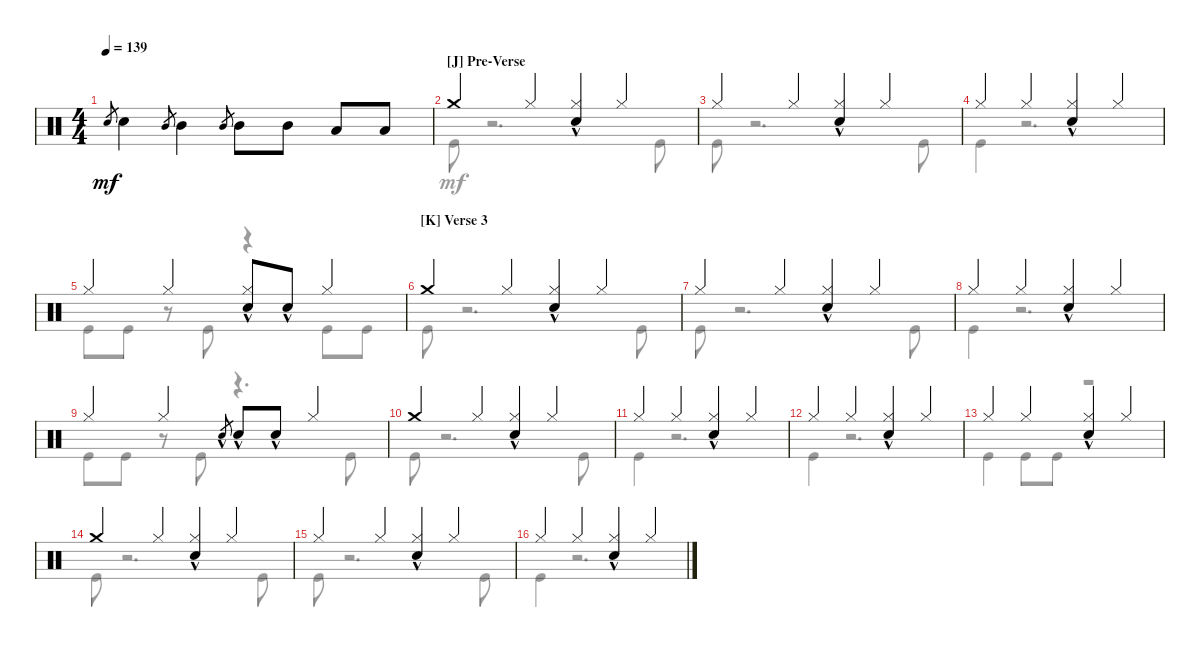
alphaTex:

\defaultSystemsLayout 4
\bracketExtendMode groupsimilarinstruments
\singleTrackTrackNamePolicy hidden
\multiTrackTrackNamePolicy hidden
\firstSystemTrackNameOrientation horizontal
\otherSystemsTrackNameOrientation horizontal
\track ("Nicko McBrain" "Drums") {instrument percussion}
\staff {score}
\articulation defaults
\voice
\ts (4 4)
\tempo 139
\clef neutral
\scale
1.02648
\ks c "Snare (hit) 2".8{gr dy mf} "Snare (hit) 2".4 "Mid Tom (hit)".8{gr} "Mid Tom (hit)".4 "Mid Tom (hit)".8{gr} "Mid Tom (hit)".8 "Mid Tom (hit)".8 "Low Tom (hit)".8 "Low Tom (hit)".8
|
\section ("J" "Pre-Verse")
\scale
0.973518 "Crash medium (hit)".4 "Hi-Hat (closed)".4 ("Hi-Hat (closed)" "Snare (hit) 2"{hac}).4 "Hi-Hat (closed)".4 |
\scale
1.02648 "Hi-Hat (closed)".4 "Hi-Hat (closed)".4 ("Snare (hit) 2"{hac} "Hi-Hat (closed)").4 "Hi-Hat (closed)".4 |
\scale
0.973518 "Hi-Hat (closed)".4 "Hi-Hat (closed)".4 ("Snare (hit) 2"{hac} "Hi-Hat (closed)").4 "Hi-Hat (closed)".4 |
\scale
1.02648 "Hi-Hat (closed)".4 "Hi-Hat (closed)".4 ("Hi-Hat (closed)" "Snare (hit) 2"{hac}).8 "Snare (hit) 2"{hac}.8 "Hi-Hat (closed)".4 |
\section ("K" "Verse 3")
\scale
0.973518 "Crash medium (hit)".4 "Hi-Hat (closed)".4 ("Hi-Hat (closed)" "Snare (hit) 2"{hac}).4 "Hi-Hat (closed)".4 |
\scale
1.02648 "Hi-Hat (closed)".4 "Hi-Hat (closed)".4 ("Snare (hit) 2"{hac} "Hi-Hat (closed)").4 "Hi-Hat (closed)".4 |
\scale
0.973518 "Hi-Hat (closed)".4 "Hi-Hat (closed)".4 ("Snare (hit) 2"{hac} "Hi-Hat (closed)").4 "Hi-Hat (closed)".4 |
\scale
1.02648 "Hi-Hat (closed)".4 "Hi-Hat (closed)".4 "Snare (hit) 2"{hac}.8{gr} "Snare (hit) 2"{hac}.8 "Snare (hit) 2"{hac}.8 "Hi-Hat (closed)".4 |
\scale
0.973518 "Crash medium (hit)".4 "Hi-Hat (closed)".4 ("Hi-Hat (closed)" "Snare (hit) 2"{hac}).4 "Hi-Hat (closed)".4 |
\scale
1.02648 "Hi-Hat (closed)".4 "Hi-Hat (closed)".4 ("Snare (hit) 2"{hac} "Hi-Hat (closed)").4 "Hi-Hat (closed)".4 |
\scale
0.973518 "Hi-Hat (closed)".4 "Hi-Hat (closed)".4 ("Snare (hit) 2"{hac} "Hi-Hat (closed)").4 "Hi-Hat (closed)".4 |
\scale
1.02648 "Hi-Hat (closed)".4 "Hi-Hat (closed)".4 ("Snare (hit) 2"{hac} "Hi-Hat (closed)").4 "Hi-Hat (closed)".4 |
\scale
0.973518 "Crash medium (hit)".4 "Hi-Hat (closed)".4 ("Hi-Hat (closed)" "Snare (hit) 2"{hac}).4 "Hi-Hat (closed)".4 |
\scale
1.02648 "Hi-Hat (closed)".4 "Hi-Hat (closed)".4 ("Snare (hit) 2"{hac} "Hi-Hat (closed)").4 "Hi-Hat (closed)".4 |
\scale
0.973518 "Hi-Hat (closed)".4 "Hi-Hat (closed)".4 ("Snare (hit) 2"{hac} "Hi-Hat (closed)").4 "Hi-Hat (closed)".4
\voice
\clef neutral
\ottava regular
\simile none
\scale
1.02648
\ks c
|
\scale
0.973518 "Kick (hit)".8 r.2{d} "Kick (hit)".8 |
\scale
1.02648 "Kick (hit)".8 r.2{d} "Kick (hit)".8 |
\scale
0.973518 "Kick (hit)".4 r.2{d} |
\scale
1.02648 "Kick (hit)".8 "Kick (hit)".8 r.8 "Kick (hit)".8 r.4 "Kick (hit)".8 "Kick (hit)".8 |
\scale
0.973518 "Kick (hit)".8 r.2{d} "Kick (hit)".8 |
\scale
1.02648 "Kick (hit)".8 r.2{d} "Kick (hit)".8 |
\scale
0.973518 "Kick (hit)".4 r.2{d} |
\scale
1.02648 "Kick (hit)".8 "Kick (hit)".8 r.8 "Kick (hit)".8 r.4{d} "Kick (hit)".8 |
\scale
0.973518 "Kick (hit)".8 r.2{d} "Kick (hit)".8 |
\scale
1.02648 "Kick (hit)".4 r.2{d} |
\scale
0.973518 "Kick (hit)".4 r.2{d} |
\scale
1.02648 "Kick (hit)".4 "Kick (hit)".8 "Kick (hit)".8 r.2 |
\scale
0.973518 "Kick (hit)".8 r.2{d} "Kick (hit)".8 |
\scale
1.02648 "Kick (hit)".8 r.2{d} "Kick (hit)".8 |
\scale
0.973518 "Kick (hit)".4 r.2{d}
